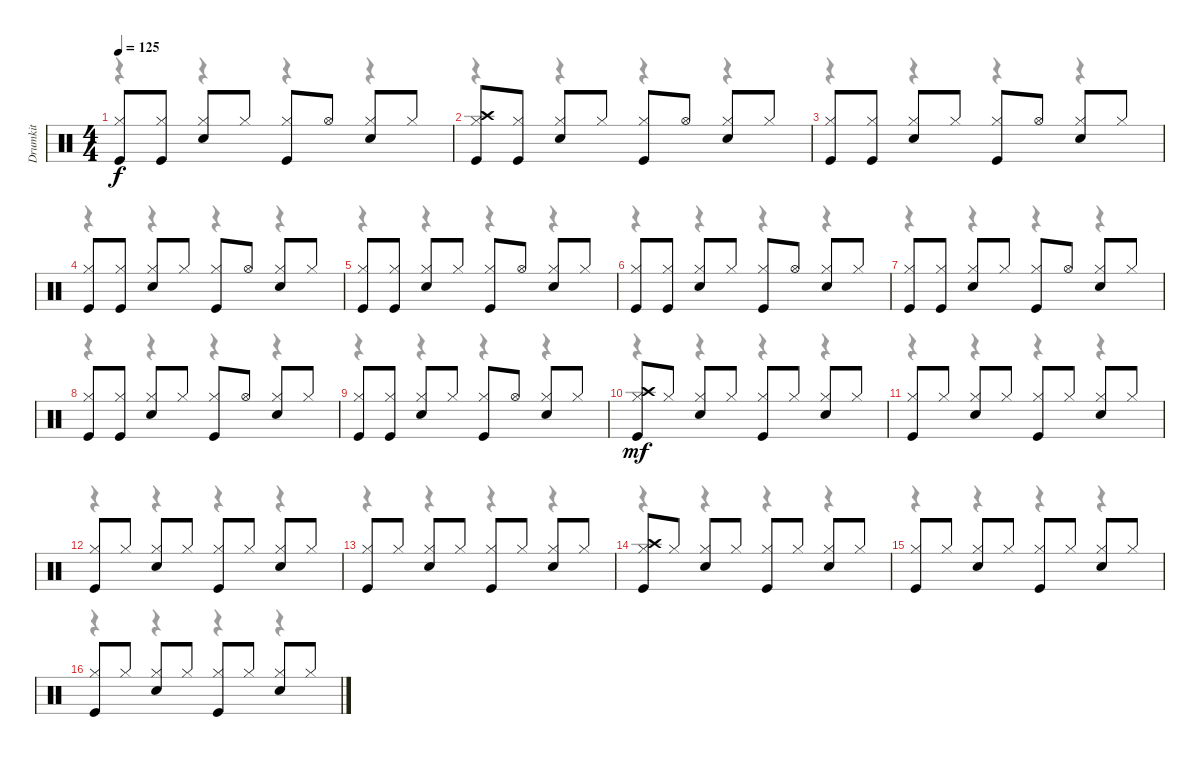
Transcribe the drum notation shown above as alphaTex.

\track ("Drumkit" "Drumkit") {instrument percussion}
\staff {score}
\articulation defaults
\voice
\ts (4 4)
\tempo 125
\clef neutral
\ks c
("Hi-Hat (closed)" "Kick (hit)").8{dy f} ("Hi-Hat (closed)" "Kick (hit)").8 ("Hi-Hat (closed)" "Snare (hit) 2").8 "Hi-Hat (closed)".8 ("Hi-Hat (closed)" "Kick (hit)").8 "Hi-Hat (open)".8 ("Hi-Hat (closed)" "Snare (hit) 2").8 "Hi-Hat (closed)".8 |
("Hi-Hat (closed)" "Kick (hit)" "Crash high (hit)").8 ("Hi-Hat (closed)" "Kick (hit)").8 ("Hi-Hat (closed)" "Snare (hit) 2").8 "Hi-Hat (closed)".8 ("Hi-Hat (closed)" "Kick (hit)").8 "Hi-Hat (open)".8 ("Hi-Hat (closed)" "Snare (hit) 2").8 "Hi-Hat (closed)".8 |
("Hi-Hat (closed)" "Kick (hit)").8 ("Hi-Hat (closed)" "Kick (hit)").8 ("Hi-Hat (closed)" "Snare (hit) 2").8 "Hi-Hat (closed)".8 ("Hi-Hat (closed)" "Kick (hit)").8 "Hi-Hat (open)".8 ("Hi-Hat (closed)" "Snare (hit) 2").8 "Hi-Hat (closed)".8 |
("Hi-Hat (closed)" "Kick (hit)").8 ("Hi-Hat (closed)" "Kick (hit)").8 ("Hi-Hat (closed)" "Snare (hit) 2").8 "Hi-Hat (closed)".8 ("Hi-Hat (closed)" "Kick (hit)").8 "Hi-Hat (open)".8 ("Hi-Hat (closed)" "Snare (hit) 2").8 "Hi-Hat (closed)".8 |
("Hi-Hat (closed)" "Kick (hit)").8 ("Hi-Hat (closed)" "Kick (hit)").8 ("Hi-Hat (closed)" "Snare (hit) 2").8 "Hi-Hat (closed)".8 ("Hi-Hat (closed)" "Kick (hit)").8 "Hi-Hat (open)".8 ("Hi-Hat (closed)" "Snare (hit) 2").8 "Hi-Hat (closed)".8 |
("Hi-Hat (closed)" "Kick (hit)").8 ("Hi-Hat (closed)" "Kick (hit)").8 ("Hi-Hat (closed)" "Snare (hit) 2").8 "Hi-Hat (closed)".8 ("Hi-Hat (closed)" "Kick (hit)").8 "Hi-Hat (open)".8 ("Hi-Hat (closed)" "Snare (hit) 2").8 "Hi-Hat (closed)".8 |
("Hi-Hat (closed)" "Kick (hit)").8 ("Hi-Hat (closed)" "Kick (hit)").8 ("Hi-Hat (closed)" "Snare (hit) 2").8 "Hi-Hat (closed)".8 ("Hi-Hat (closed)" "Kick (hit)").8 "Hi-Hat (open)".8 ("Hi-Hat (closed)" "Snare (hit) 2").8 "Hi-Hat (closed)".8 |
("Hi-Hat (closed)" "Kick (hit)").8 ("Hi-Hat (closed)" "Kick (hit)").8 ("Hi-Hat (closed)" "Snare (hit) 2").8 "Hi-Hat (closed)".8 ("Hi-Hat (closed)" "Kick (hit)").8 "Hi-Hat (open)".8 ("Hi-Hat (closed)" "Snare (hit) 2").8 "Hi-Hat (closed)".8 |
("Hi-Hat (closed)" "Kick (hit)").8 ("Hi-Hat (closed)" "Kick (hit)").8 ("Hi-Hat (closed)" "Snare (hit) 2").8 "Hi-Hat (closed)".8 ("Hi-Hat (closed)" "Kick (hit)").8 "Hi-Hat (open)".8 ("Hi-Hat (closed)" "Snare (hit) 2").8 "Hi-Hat (closed)".8 |
("Crash high (hit)" "Hi-Hat (closed)" "Kick (hit)").8{dy mf} "Hi-Hat (closed)".8 ("Hi-Hat (closed)" "Snare (hit) 2").8 "Hi-Hat (closed)".8 ("Hi-Hat (closed)" "Kick (hit)").8 "Hi-Hat (closed)".8 ("Hi-Hat (closed)" "Snare (hit) 2").8 "Hi-Hat (closed)".8 |
("Kick (hit)" "Hi-Hat (closed)").8 "Hi-Hat (closed)".8 ("Snare (hit) 2" "Hi-Hat (closed)").8 "Hi-Hat (closed)".8 ("Kick (hit)" "Hi-Hat (closed)").8 "Hi-Hat (closed)".8 ("Snare (hit) 2" "Hi-Hat (closed)").8 "Hi-Hat (closed)".8 |
("Kick (hit)" "Hi-Hat (closed)").8 "Hi-Hat (closed)".8 ("Hi-Hat (closed)" "Snare (hit) 2").8 "Hi-Hat (closed)".8 ("Hi-Hat (closed)" "Kick (hit)").8 "Hi-Hat (closed)".8 ("Hi-Hat (closed)" "Snare (hit) 2").8 "Hi-Hat (closed)".8 |
("Hi-Hat (closed)" "Kick (hit)").8 "Hi-Hat (closed)".8 ("Hi-Hat (closed)" "Snare (hit) 2").8 "Hi-Hat (closed)".8 ("Hi-Hat (closed)" "Kick (hit)").8 "Hi-Hat (closed)".8 ("Hi-Hat (closed)" "Snare (hit) 2").8 "Hi-Hat (closed)".8 |
("Crash high (hit)" "Hi-Hat (closed)" "Kick (hit)").8 "Hi-Hat (closed)".8 ("Hi-Hat (closed)" "Snare (hit) 2").8 "Hi-Hat (closed)".8 ("Hi-Hat (closed)" "Kick (hit)").8 "Hi-Hat (closed)".8 ("Hi-Hat (closed)" "Snare (hit) 2").8 "Hi-Hat (closed)".8 |
("Kick (hit)" "Hi-Hat (closed)").8 "Hi-Hat (closed)".8 ("Snare (hit) 2" "Hi-Hat (closed)").8 "Hi-Hat (closed)".8 ("Kick (hit)" "Hi-Hat (closed)").8 "Hi-Hat (closed)".8 ("Snare (hit) 2" "Hi-Hat (closed)").8 "Hi-Hat (closed)".8 |
("Kick (hit)" "Hi-Hat (closed)").8 "Hi-Hat (closed)".8 ("Hi-Hat (closed)" "Snare (hit) 2").8 "Hi-Hat (closed)".8 ("Hi-Hat (closed)" "Kick (hit)").8 "Hi-Hat (closed)".8 ("Hi-Hat (closed)" "Snare (hit) 2").8 "Hi-Hat (closed)".8
\voice
\clef neutral
\ottava regular
\simile none
\ks c
r.4{dy f} r.4 r.4 r.4 |
r.4 r.4 r.4 r.4 |
r.4 r.4 r.4 r.4 |
r.4 r.4 r.4 r.4 |
r.4 r.4 r.4 r.4 |
r.4 r.4 r.4 r.4 |
r.4 r.4 r.4 r.4 |
r.4 r.4 r.4 r.4 |
r.4 r.4 r.4 r.4 |
r.4 r.4 r.4 r.4 |
r.4 r.4 r.4 r.4 |
r.4 r.4 r.4 r.4 |
r.4 r.4 r.4 r.4 |
r.4 r.4 r.4 r.4 |
r.4 r.4 r.4 r.4 |
r.4 r.4 r.4 r.4
